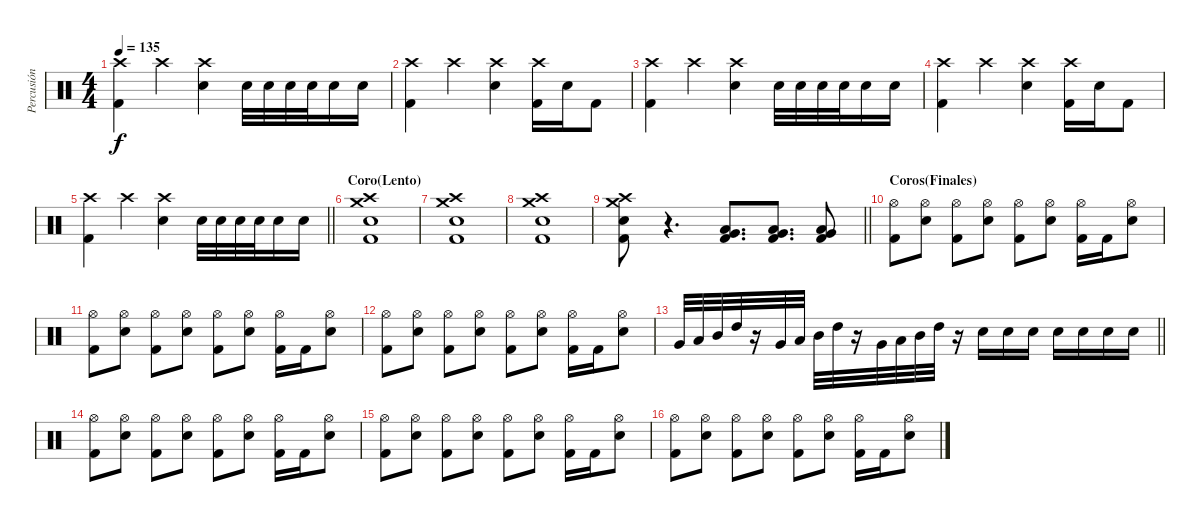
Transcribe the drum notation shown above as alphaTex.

\track ("Percusión" "Percusión") {instrument percussion}
\staff {score}
\articulation defaults
\ts (4 4)
\tempo 135
\clef neutral
\ks c
("Crash high (hit)" "Kick (hit) 2").4{dy f} "Crash high (hit)".4 ("Crash high (hit)" "Electric Snare (hit)").4 "Electric Snare (hit)".32 "Electric Snare (hit)".32 "Electric Snare (hit)".32 "Electric Snare (hit)".32 "Electric Snare (hit)".16 "Electric Snare (hit)".16 |
("Crash high (hit)" "Kick (hit) 2").4 "Crash high (hit)".4 ("Crash high (hit)" "Electric Snare (hit)").4 ("Crash high (hit)" "Kick (hit) 2").16 "Electric Snare (hit)".16 "Kick (hit) 2".8 |
("Crash high (hit)" "Kick (hit) 2").4 "Crash high (hit)".4 ("Crash high (hit)" "Electric Snare (hit)").4 "Electric Snare (hit)".32 "Electric Snare (hit)".32 "Electric Snare (hit)".32 "Electric Snare (hit)".32 "Electric Snare (hit)".16 "Electric Snare (hit)".16 |
("Crash high (hit)" "Kick (hit) 2").4 "Crash high (hit)".4 ("Crash high (hit)" "Electric Snare (hit)").4 ("Crash high (hit)" "Kick (hit) 2").16 "Electric Snare (hit)".16 "Kick (hit) 2".8 |
\barLineRight lightlight
("Crash high (hit)" "Kick (hit) 2").4 "Crash high (hit)".4 ("Crash high (hit)" "Electric Snare (hit)").4 "Electric Snare (hit)".32 "Electric Snare (hit)".32 "Electric Snare (hit)".32 "Electric Snare (hit)".32 "Electric Snare (hit)".16 "Electric Snare (hit)".16 |
\section ("" "Coro(Lento)")
("Crash medium (hit)" "Crash high (hit)" "Electric Snare (hit)" "Kick (hit) 2").1 |
("Crash medium (hit)" "Crash high (hit)" "Electric Snare (hit)" "Kick (hit) 2").1 |
("Crash medium (hit)" "Crash high (hit)" "Electric Snare (hit)" "Kick (hit) 2").1 |
\barLineRight lightlight
("Crash medium (hit)" "Crash high (hit)" "Electric Snare (hit)" "Kick (hit) 2").8 r.4{d} ("Low Tom (hit)" "Very Low Tom (hit)" "Kick (hit) 2").8{d} ("Low Tom (hit)" "Very Low Tom (hit)" "Kick (hit) 2").8{d} ("Low Tom (hit)" "Very Low Tom (hit)" "Kick (hit) 2").8 |
\section ("" "Coros(Finales)")
("Hi-Hat (open)" "Kick (hit) 2").8 ("Hi-Hat (open)" "Electric Snare (hit)").8 ("Hi-Hat (open)" "Kick (hit) 2").8 ("Hi-Hat (open)" "Electric Snare (hit)").8 ("Hi-Hat (open)" "Kick (hit) 2").8 ("Hi-Hat (open)" "Electric Snare (hit)").8 ("Hi-Hat (open)" "Kick (hit) 2").16 "Kick (hit) 2".16 ("Hi-Hat (open)" "Electric Snare (hit)").8 |
("Hi-Hat (open)" "Kick (hit) 2").8 ("Hi-Hat (open)" "Electric Snare (hit)").8 ("Hi-Hat (open)" "Kick (hit) 2").8 ("Hi-Hat (open)" "Electric Snare (hit)").8 ("Hi-Hat (open)" "Kick (hit) 2").8 ("Hi-Hat (open)" "Electric Snare (hit)").8 ("Hi-Hat (open)" "Kick (hit) 2").16 "Kick (hit) 2".16 ("Hi-Hat (open)" "Electric Snare (hit)").8 |
("Hi-Hat (open)" "Kick (hit) 2").8 ("Hi-Hat (open)" "Electric Snare (hit)").8 ("Hi-Hat (open)" "Kick (hit) 2").8 ("Hi-Hat (open)" "Electric Snare (hit)").8 ("Hi-Hat (open)" "Kick (hit) 2").8 ("Hi-Hat (open)" "Electric Snare (hit)").8 ("Hi-Hat (open)" "Kick (hit) 2").16 "Kick (hit) 2".16 ("Hi-Hat (open)" "Electric Snare (hit)").8 |
\barLineRight lightlight "Very Low Tom (hit)".32 "Low Tom (hit)".32 "Mid Tom (hit)".32 "High Tom (hit)".32
r.16 "Very Low Tom (hit)".32{beam Up} "Low Tom (hit)".32{beam Up} "Mid Tom (hit)".32{beam Down} "High Tom (hit)".32{beam Down} r.16 "Very Low Tom (hit)".32 "Low Tom (hit)".32 "Mid Tom (hit)".32 "High Tom (hit)".32 r.16 "Electric Snare (hit)".16 "Electric Snare (hit)".16 "Electric Snare (hit)".16 "Electric Snare (hit)".16 "Electric Snare (hit)".16 "Electric Snare (hit)".16 "Electric Snare (hit)".16 |
("Hi-Hat (open)" "Kick (hit) 2").8 ("Hi-Hat (open)" "Electric Snare (hit)").8 ("Hi-Hat (open)" "Kick (hit) 2").8 ("Hi-Hat (open)" "Electric Snare (hit)").8 ("Hi-Hat (open)" "Kick (hit) 2").8 ("Hi-Hat (open)" "Electric Snare (hit)").8 ("Hi-Hat (open)" "Kick (hit) 2").16 "Kick (hit) 2".16 ("Hi-Hat (open)" "Electric Snare (hit)").8 |
("Hi-Hat (open)" "Kick (hit) 2").8 ("Hi-Hat (open)" "Electric Snare (hit)").8 ("Hi-Hat (open)" "Kick (hit) 2").8 ("Hi-Hat (open)" "Electric Snare (hit)").8 ("Hi-Hat (open)" "Kick (hit) 2").8 ("Hi-Hat (open)" "Electric Snare (hit)").8 ("Hi-Hat (open)" "Kick (hit) 2").16 "Kick (hit) 2".16 ("Hi-Hat (open)" "Electric Snare (hit)").8 |
("Hi-Hat (open)" "Kick (hit) 2").8 ("Hi-Hat (open)" "Electric Snare (hit)").8 ("Hi-Hat (open)" "Kick (hit) 2").8 ("Hi-Hat (open)" "Electric Snare (hit)").8 ("Hi-Hat (open)" "Kick (hit) 2").8 ("Hi-Hat (open)" "Electric Snare (hit)").8 ("Hi-Hat (open)" "Kick (hit) 2").16 "Kick (hit) 2".16 ("Hi-Hat (open)" "Electric Snare (hit)").8
